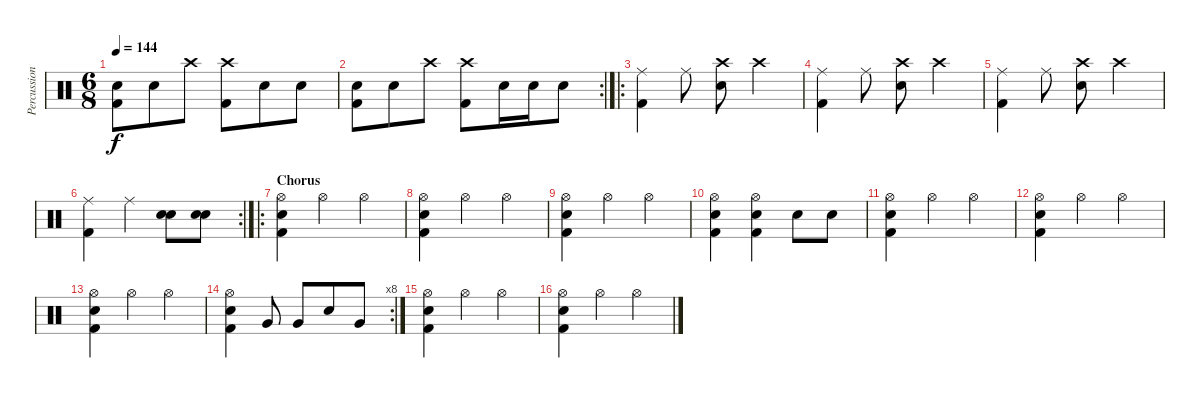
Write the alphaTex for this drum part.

\track ("Percussion" "Percussion") {instrument percussion}
\staff {score}
\articulation defaults
\ts (6 8)
\tempo 144
\clef neutral
\ks c
("Electric Snare (hit)" "Kick (hit) 2").8{dy f} "Electric Snare (hit)".8 "Crash high (hit)".8 ("Crash high (hit)" "Kick (hit) 2").8 "Electric Snare (hit)".8 "Electric Snare (hit)".8 |
\rc 2
("Electric Snare (hit)" "Kick (hit) 2").8 "Electric Snare (hit)".8 "Crash high (hit)".8 ("Crash high (hit)" "Kick (hit) 2").8 "Electric Snare (hit)".16 "Electric Snare (hit)".16 "Electric Snare (hit)".8 |
\ro
("Ride (middle)" "Kick (hit) 2").4 "Ride (middle)".8 ("Crash high (hit)" "Electric Snare (hit)").8 "Crash high (hit)".4 |
("Ride (middle)" "Kick (hit) 2").4 "Ride (middle)".8 ("Crash high (hit)" "Electric Snare (hit)").8 "Crash high (hit)".4 |
("Ride (middle)" "Kick (hit) 2").4 "Ride (middle)".8 ("Crash high (hit)" "Electric Snare (hit)").8 "Crash high (hit)".4 |
\rc 2
("Ride (middle)" "Kick (hit) 2").4 "Ride (middle)".4 ("Electric Snare (hit)" "Electric Snare (hit)").8 ("Electric Snare (hit)" "Electric Snare (hit)").8 |
\ro
\section ("" "Chorus")
("Hi-Hat (open)" "Electric Snare (hit)" "Kick (hit) 2").4 "Hi-Hat (open)".4 "Hi-Hat (open)".4 |
("Hi-Hat (open)" "Electric Snare (hit)" "Kick (hit) 2").4 "Hi-Hat (open)".4 "Hi-Hat (open)".4 |
("Hi-Hat (open)" "Electric Snare (hit)" "Kick (hit) 2").4 "Hi-Hat (open)".4 "Hi-Hat (open)".4 |
("Hi-Hat (open)" "Electric Snare (hit)" "Kick (hit) 2").4 ("Hi-Hat (open)" "Electric Snare (hit)" "Kick (hit) 2").4 "Electric Snare (hit)".8 "Electric Snare (hit)".8 |
("Hi-Hat (open)" "Electric Snare (hit)" "Kick (hit) 2").4 "Hi-Hat (open)".4 "Hi-Hat (open)".4 |
("Hi-Hat (open)" "Electric Snare (hit)" "Kick (hit) 2").4 "Hi-Hat (open)".4 "Hi-Hat (open)".4 |
("Hi-Hat (open)" "Electric Snare (hit)" "Kick (hit) 2").4 "Hi-Hat (open)".4 "Hi-Hat (open)".4 |
\rc 8
("Hi-Hat (open)" "Electric Snare (hit)" "Kick (hit) 2").4 "Very Low Tom (hit)".8 "Very Low Tom (hit)".8 "Electric Snare (hit)".8 "Very Low Tom (hit)".8 |
("Hi-Hat (open)" "Electric Snare (hit)" "Kick (hit) 2").4 "Hi-Hat (open)".4 "Hi-Hat (open)".4 |
("Hi-Hat (open)" "Electric Snare (hit)" "Kick (hit) 2").4 "Hi-Hat (open)".4 "Hi-Hat (open)".4
